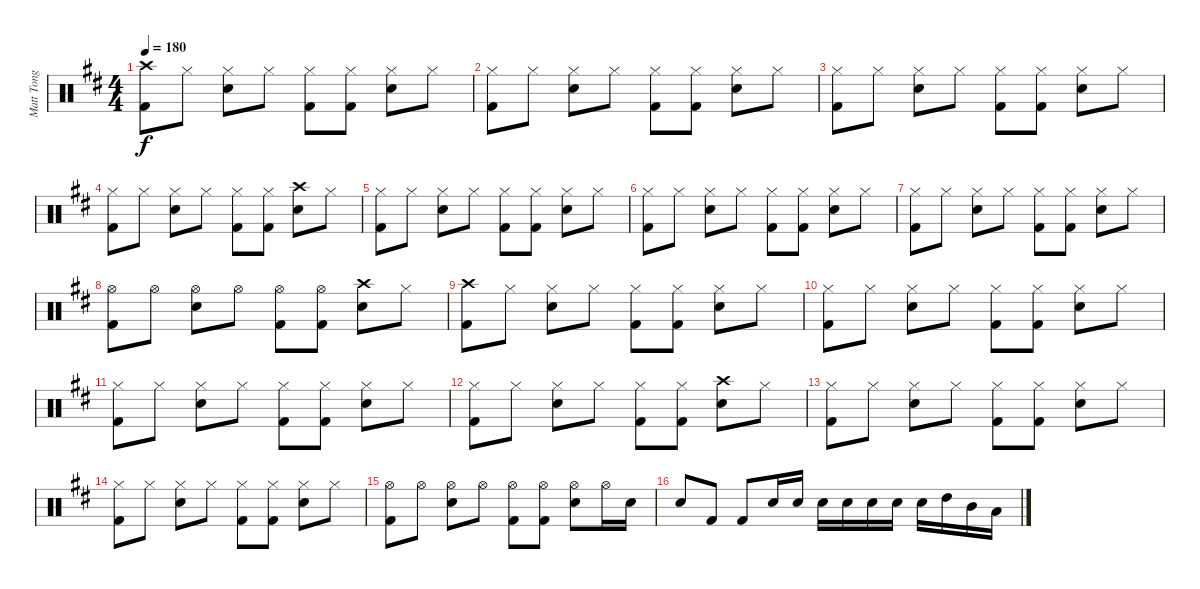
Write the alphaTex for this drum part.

\track ("Matt Tong" "Matt Tong") {instrument percussion}
\staff {score}
\articulation defaults
\ts (4 4)
\tempo 180
\clef neutral
\ks d
("Crash high (hit)" "Kick (hit) 2").8{dy f} "Hi-Hat (closed)".8 ("Hi-Hat (closed)" "Electric Snare (hit)").8 "Hi-Hat (closed)".8 ("Hi-Hat (closed)" "Kick (hit) 2").8 ("Hi-Hat (closed)" "Kick (hit) 2").8 ("Hi-Hat (closed)" "Electric Snare (hit)").8 "Hi-Hat (closed)".8 |
("Hi-Hat (closed)" "Kick (hit) 2").8 "Hi-Hat (closed)".8 ("Hi-Hat (closed)" "Electric Snare (hit)").8 "Hi-Hat (closed)".8 ("Hi-Hat (closed)" "Kick (hit) 2").8 ("Hi-Hat (closed)" "Kick (hit) 2").8 ("Hi-Hat (closed)" "Electric Snare (hit)").8 "Hi-Hat (closed)".8 |
("Hi-Hat (closed)" "Kick (hit) 2").8 "Hi-Hat (closed)".8 ("Hi-Hat (closed)" "Electric Snare (hit)").8 "Hi-Hat (closed)".8 ("Hi-Hat (closed)" "Kick (hit) 2").8 ("Hi-Hat (closed)" "Kick (hit) 2").8 ("Hi-Hat (closed)" "Electric Snare (hit)").8 "Hi-Hat (closed)".8 |
("Hi-Hat (closed)" "Kick (hit) 2").8 "Hi-Hat (closed)".8 ("Hi-Hat (closed)" "Electric Snare (hit)").8 "Hi-Hat (closed)".8 ("Hi-Hat (closed)" "Kick (hit) 2").8 ("Hi-Hat (closed)" "Kick (hit) 2").8 ("Crash high (hit)" "Electric Snare (hit)").8 "Hi-Hat (closed)".8 |
("Hi-Hat (closed)" "Kick (hit) 2").8 "Hi-Hat (closed)".8 ("Hi-Hat (closed)" "Electric Snare (hit)").8 "Hi-Hat (closed)".8 ("Hi-Hat (closed)" "Kick (hit) 2").8 ("Hi-Hat (closed)" "Kick (hit) 2").8 ("Hi-Hat (closed)" "Electric Snare (hit)").8 "Hi-Hat (closed)".8 |
("Hi-Hat (closed)" "Kick (hit) 2").8 "Hi-Hat (closed)".8 ("Hi-Hat (closed)" "Electric Snare (hit)").8 "Hi-Hat (closed)".8 ("Hi-Hat (closed)" "Kick (hit) 2").8 ("Hi-Hat (closed)" "Kick (hit) 2").8 ("Hi-Hat (closed)" "Electric Snare (hit)").8 "Hi-Hat (closed)".8 |
("Hi-Hat (closed)" "Kick (hit) 2").8 "Hi-Hat (closed)".8 ("Hi-Hat (closed)" "Electric Snare (hit)").8 "Hi-Hat (closed)".8 ("Hi-Hat (closed)" "Kick (hit) 2").8 ("Hi-Hat (closed)" "Kick (hit) 2").8 ("Hi-Hat (closed)" "Electric Snare (hit)").8 "Hi-Hat (closed)".8 |
("Hi-Hat (open)" "Kick (hit) 2").8 "Hi-Hat (open)".8 ("Hi-Hat (open)" "Electric Snare (hit)").8 "Hi-Hat (open)".8 ("Hi-Hat (open)" "Kick (hit) 2").8 ("Hi-Hat (open)" "Kick (hit) 2").8 ("Crash high (hit)" "Electric Snare (hit)").8 "Hi-Hat (closed)".8 |
("Crash high (hit)" "Kick (hit) 2").8 "Hi-Hat (closed)".8 ("Hi-Hat (closed)" "Electric Snare (hit)").8 "Hi-Hat (closed)".8 ("Hi-Hat (closed)" "Kick (hit) 2").8 ("Hi-Hat (closed)" "Kick (hit) 2").8 ("Hi-Hat (closed)" "Electric Snare (hit)").8 "Hi-Hat (closed)".8 |
("Hi-Hat (closed)" "Kick (hit) 2").8 "Hi-Hat (closed)".8 ("Hi-Hat (closed)" "Electric Snare (hit)").8 "Hi-Hat (closed)".8 ("Hi-Hat (closed)" "Kick (hit) 2").8 ("Hi-Hat (closed)" "Kick (hit) 2").8 ("Hi-Hat (closed)" "Electric Snare (hit)").8 "Hi-Hat (closed)".8 |
("Hi-Hat (closed)" "Kick (hit) 2").8 "Hi-Hat (closed)".8 ("Hi-Hat (closed)" "Electric Snare (hit)").8 "Hi-Hat (closed)".8 ("Hi-Hat (closed)" "Kick (hit) 2").8 ("Hi-Hat (closed)" "Kick (hit) 2").8 ("Hi-Hat (closed)" "Electric Snare (hit)").8 "Hi-Hat (closed)".8 |
("Hi-Hat (closed)" "Kick (hit) 2").8 "Hi-Hat (closed)".8 ("Hi-Hat (closed)" "Electric Snare (hit)").8 "Hi-Hat (closed)".8 ("Hi-Hat (closed)" "Kick (hit) 2").8 ("Hi-Hat (closed)" "Kick (hit) 2").8 ("Crash high (hit)" "Electric Snare (hit)").8 "Hi-Hat (closed)".8 |
("Hi-Hat (closed)" "Kick (hit) 2").8 "Hi-Hat (closed)".8 ("Hi-Hat (closed)" "Electric Snare (hit)").8 "Hi-Hat (closed)".8 ("Hi-Hat (closed)" "Kick (hit) 2").8 ("Hi-Hat (closed)" "Kick (hit) 2").8 ("Hi-Hat (closed)" "Electric Snare (hit)").8 "Hi-Hat (closed)".8 |
("Hi-Hat (closed)" "Kick (hit) 2").8 "Hi-Hat (closed)".8 ("Hi-Hat (closed)" "Electric Snare (hit)").8 "Hi-Hat (closed)".8 ("Hi-Hat (closed)" "Kick (hit) 2").8 ("Hi-Hat (closed)" "Kick (hit) 2").8 ("Hi-Hat (closed)" "Electric Snare (hit)").8 "Hi-Hat (closed)".8 |
("Hi-Hat (open)" "Kick (hit) 2").8 "Hi-Hat (open)".8 ("Hi-Hat (open)" "Electric Snare (hit)").8 "Hi-Hat (open)".8 ("Hi-Hat (open)" "Kick (hit) 2").8 ("Hi-Hat (open)" "Kick (hit) 2").8 ("Hi-Hat (open)" "Electric Snare (hit)").8 "Hi-Hat (open)".16 "Electric Snare (hit)".16 |
"Electric Snare (hit)".8 "Kick (hit) 2".8 "Kick (hit) 2".8 "Electric Snare (hit)".16 "Electric Snare (hit)".16 "Electric Snare (hit)".16 "Electric Snare (hit)".16 "Electric Snare (hit)".16 "Electric Snare (hit)".16 "Electric Snare (hit)".16 "High Tom (hit)".16 "Mid Tom (hit)".16 "Low Tom (hit)".16
